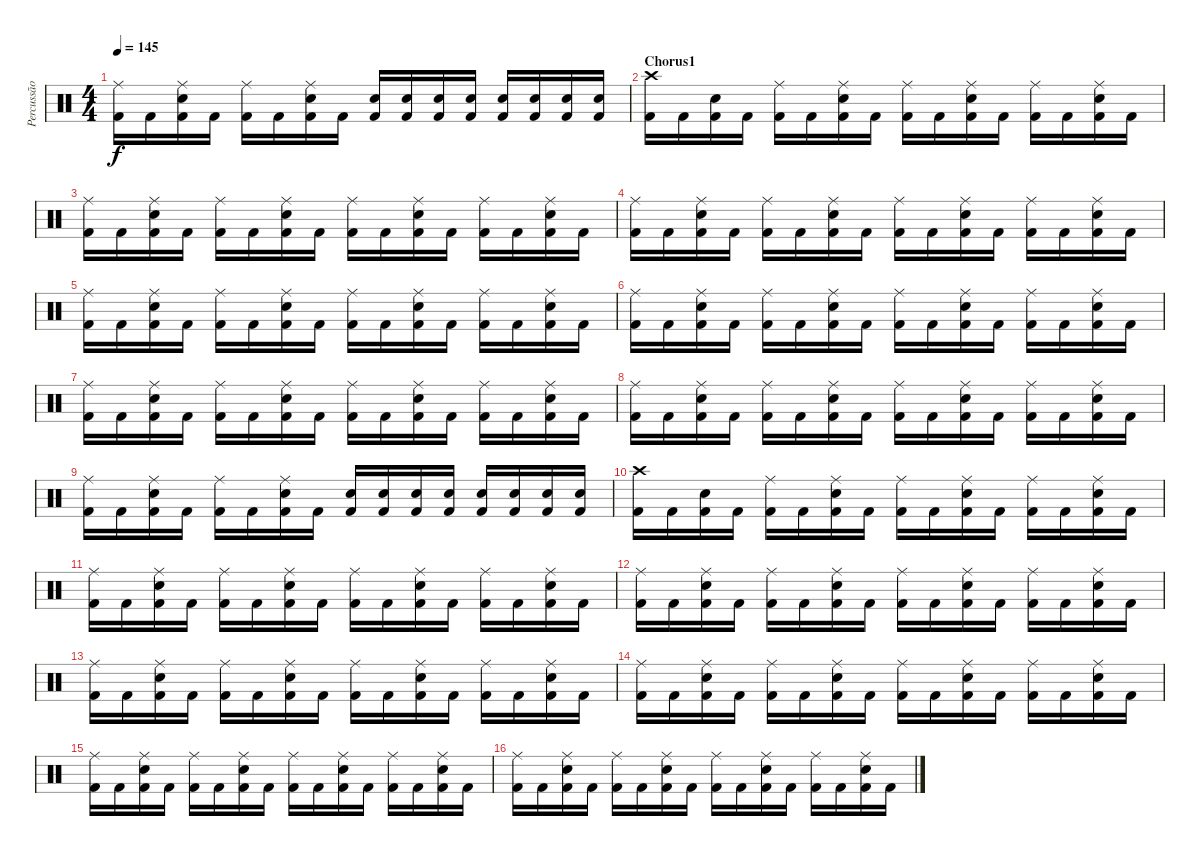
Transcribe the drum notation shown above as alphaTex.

\track ("Percussão" "Percussão") {instrument percussion}
\staff {score}
\articulation defaults
\ts (4 4)
\tempo 145
\clef neutral
\ks c
("Kick (hit) 2" "Ride (middle)").16{dy f} "Kick (hit) 2".16 ("Kick (hit) 2" "Snare (hit) 2" "Ride (middle)").16 "Kick (hit) 2".16 ("Kick (hit) 2" "Ride (middle)").16 "Kick (hit) 2".16 ("Kick (hit) 2" "Snare (hit) 2" "Ride (middle)").16 "Kick (hit) 2".16 ("Kick (hit) 2" "Snare (hit) 2").16 ("Kick (hit) 2" "Snare (hit) 2").16 ("Kick (hit) 2" "Snare (hit) 2").16 ("Kick (hit) 2" "Snare (hit) 2").16 ("Kick (hit) 2" "Snare (hit) 2").16 ("Kick (hit) 2" "Snare (hit) 2").16 ("Kick (hit) 2" "Snare (hit) 2").16 ("Kick (hit) 2" "Snare (hit) 2").16 |
\section ("" "Chorus1")
("Kick (hit) 2" "Crash high (hit)").16 "Kick (hit) 2".16 ("Kick (hit) 2" "Snare (hit) 2").16 "Kick (hit) 2".16 ("Kick (hit) 2" "Ride (middle)").16 "Kick (hit) 2".16 ("Kick (hit) 2" "Snare (hit) 2" "Ride (middle)").16 "Kick (hit) 2".16 ("Kick (hit) 2" "Ride (middle)").16 "Kick (hit) 2".16 ("Kick (hit) 2" "Snare (hit) 2" "Ride (middle)").16 "Kick (hit) 2".16 ("Kick (hit) 2" "Ride (middle)").16 "Kick (hit) 2".16 ("Kick (hit) 2" "Snare (hit) 2" "Ride (middle)").16 "Kick (hit) 2".16 |
("Kick (hit) 2" "Ride (middle)").16 "Kick (hit) 2".16 ("Kick (hit) 2" "Snare (hit) 2" "Ride (middle)").16 "Kick (hit) 2".16 ("Kick (hit) 2" "Ride (middle)").16 "Kick (hit) 2".16 ("Kick (hit) 2" "Snare (hit) 2" "Ride (middle)").16 "Kick (hit) 2".16 ("Kick (hit) 2" "Ride (middle)").16 "Kick (hit) 2".16 ("Kick (hit) 2" "Snare (hit) 2" "Ride (middle)").16 "Kick (hit) 2".16 ("Kick (hit) 2" "Ride (middle)").16 "Kick (hit) 2".16 ("Kick (hit) 2" "Snare (hit) 2" "Ride (middle)").16 "Kick (hit) 2".16 |
("Kick (hit) 2" "Ride (middle)").16 "Kick (hit) 2".16 ("Kick (hit) 2" "Snare (hit) 2" "Ride (middle)").16 "Kick (hit) 2".16 ("Kick (hit) 2" "Ride (middle)").16 "Kick (hit) 2".16 ("Kick (hit) 2" "Snare (hit) 2" "Ride (middle)").16 "Kick (hit) 2".16 ("Kick (hit) 2" "Ride (middle)").16 "Kick (hit) 2".16 ("Kick (hit) 2" "Snare (hit) 2" "Ride (middle)").16 "Kick (hit) 2".16 ("Kick (hit) 2" "Ride (middle)").16 "Kick (hit) 2".16 ("Kick (hit) 2" "Snare (hit) 2" "Ride (middle)").16 "Kick (hit) 2".16 |
("Kick (hit) 2" "Ride (middle)").16 "Kick (hit) 2".16 ("Kick (hit) 2" "Snare (hit) 2" "Ride (middle)").16 "Kick (hit) 2".16 ("Kick (hit) 2" "Ride (middle)").16 "Kick (hit) 2".16 ("Kick (hit) 2" "Snare (hit) 2" "Ride (middle)").16 "Kick (hit) 2".16 ("Kick (hit) 2" "Ride (middle)").16 "Kick (hit) 2".16 ("Kick (hit) 2" "Snare (hit) 2" "Ride (middle)").16 "Kick (hit) 2".16 ("Kick (hit) 2" "Ride (middle)").16 "Kick (hit) 2".16 ("Kick (hit) 2" "Snare (hit) 2" "Ride (middle)").16 "Kick (hit) 2".16 |
("Kick (hit) 2" "Ride (middle)").16 "Kick (hit) 2".16 ("Kick (hit) 2" "Snare (hit) 2" "Ride (middle)").16 "Kick (hit) 2".16 ("Kick (hit) 2" "Ride (middle)").16 "Kick (hit) 2".16 ("Kick (hit) 2" "Snare (hit) 2" "Ride (middle)").16 "Kick (hit) 2".16 ("Kick (hit) 2" "Ride (middle)").16 "Kick (hit) 2".16 ("Kick (hit) 2" "Snare (hit) 2" "Ride (middle)").16 "Kick (hit) 2".16 ("Kick (hit) 2" "Ride (middle)").16 "Kick (hit) 2".16 ("Kick (hit) 2" "Snare (hit) 2" "Ride (middle)").16 "Kick (hit) 2".16 |
("Kick (hit) 2" "Ride (middle)").16 "Kick (hit) 2".16 ("Kick (hit) 2" "Snare (hit) 2" "Ride (middle)").16 "Kick (hit) 2".16 ("Kick (hit) 2" "Ride (middle)").16 "Kick (hit) 2".16 ("Kick (hit) 2" "Snare (hit) 2" "Ride (middle)").16 "Kick (hit) 2".16 ("Kick (hit) 2" "Ride (middle)").16 "Kick (hit) 2".16 ("Kick (hit) 2" "Snare (hit) 2" "Ride (middle)").16 "Kick (hit) 2".16 ("Kick (hit) 2" "Ride (middle)").16 "Kick (hit) 2".16 ("Kick (hit) 2" "Snare (hit) 2" "Ride (middle)").16 "Kick (hit) 2".16 |
("Kick (hit) 2" "Ride (middle)").16 "Kick (hit) 2".16 ("Kick (hit) 2" "Snare (hit) 2" "Ride (middle)").16 "Kick (hit) 2".16 ("Kick (hit) 2" "Ride (middle)").16 "Kick (hit) 2".16 ("Kick (hit) 2" "Snare (hit) 2" "Ride (middle)").16 "Kick (hit) 2".16 ("Kick (hit) 2" "Ride (middle)").16 "Kick (hit) 2".16 ("Kick (hit) 2" "Snare (hit) 2" "Ride (middle)").16 "Kick (hit) 2".16 ("Kick (hit) 2" "Ride (middle)").16 "Kick (hit) 2".16 ("Kick (hit) 2" "Snare (hit) 2" "Ride (middle)").16 "Kick (hit) 2".16 |
("Kick (hit) 2" "Ride (middle)").16 "Kick (hit) 2".16 ("Kick (hit) 2" "Snare (hit) 2" "Ride (middle)").16 "Kick (hit) 2".16 ("Kick (hit) 2" "Ride (middle)").16 "Kick (hit) 2".16 ("Kick (hit) 2" "Snare (hit) 2" "Ride (middle)").16 "Kick (hit) 2".16 ("Kick (hit) 2" "Snare (hit) 2").16 ("Kick (hit) 2" "Snare (hit) 2").16 ("Kick (hit) 2" "Snare (hit) 2").16 ("Kick (hit) 2" "Snare (hit) 2").16 ("Kick (hit) 2" "Snare (hit) 2").16 ("Kick (hit) 2" "Snare (hit) 2").16 ("Kick (hit) 2" "Snare (hit) 2").16 ("Kick (hit) 2" "Snare (hit) 2").16 |
("Kick (hit) 2" "Crash high (hit)").16 "Kick (hit) 2".16 ("Kick (hit) 2" "Snare (hit) 2").16 "Kick (hit) 2".16 ("Kick (hit) 2" "Ride (middle)").16 "Kick (hit) 2".16 ("Kick (hit) 2" "Snare (hit) 2" "Ride (middle)").16 "Kick (hit) 2".16 ("Kick (hit) 2" "Ride (middle)").16 "Kick (hit) 2".16 ("Kick (hit) 2" "Snare (hit) 2" "Ride (middle)").16 "Kick (hit) 2".16 ("Kick (hit) 2" "Ride (middle)").16 "Kick (hit) 2".16 ("Kick (hit) 2" "Snare (hit) 2" "Ride (middle)").16 "Kick (hit) 2".16 |
("Kick (hit) 2" "Ride (middle)").16 "Kick (hit) 2".16 ("Kick (hit) 2" "Snare (hit) 2" "Ride (middle)").16 "Kick (hit) 2".16 ("Kick (hit) 2" "Ride (middle)").16 "Kick (hit) 2".16 ("Kick (hit) 2" "Snare (hit) 2" "Ride (middle)").16 "Kick (hit) 2".16 ("Kick (hit) 2" "Ride (middle)").16 "Kick (hit) 2".16 ("Kick (hit) 2" "Snare (hit) 2" "Ride (middle)").16 "Kick (hit) 2".16 ("Kick (hit) 2" "Ride (middle)").16 "Kick (hit) 2".16 ("Kick (hit) 2" "Snare (hit) 2" "Ride (middle)").16 "Kick (hit) 2".16 |
("Kick (hit) 2" "Ride (middle)").16 "Kick (hit) 2".16 ("Kick (hit) 2" "Snare (hit) 2" "Ride (middle)").16 "Kick (hit) 2".16 ("Kick (hit) 2" "Ride (middle)").16 "Kick (hit) 2".16 ("Kick (hit) 2" "Snare (hit) 2" "Ride (middle)").16 "Kick (hit) 2".16 ("Kick (hit) 2" "Ride (middle)").16 "Kick (hit) 2".16 ("Kick (hit) 2" "Snare (hit) 2" "Ride (middle)").16 "Kick (hit) 2".16 ("Kick (hit) 2" "Ride (middle)").16 "Kick (hit) 2".16 ("Kick (hit) 2" "Snare (hit) 2" "Ride (middle)").16 "Kick (hit) 2".16 |
("Kick (hit) 2" "Ride (middle)").16 "Kick (hit) 2".16 ("Kick (hit) 2" "Snare (hit) 2" "Ride (middle)").16 "Kick (hit) 2".16 ("Kick (hit) 2" "Ride (middle)").16 "Kick (hit) 2".16 ("Kick (hit) 2" "Snare (hit) 2" "Ride (middle)").16 "Kick (hit) 2".16 ("Kick (hit) 2" "Ride (middle)").16 "Kick (hit) 2".16 ("Kick (hit) 2" "Snare (hit) 2" "Ride (middle)").16 "Kick (hit) 2".16 ("Kick (hit) 2" "Ride (middle)").16 "Kick (hit) 2".16 ("Kick (hit) 2" "Snare (hit) 2" "Ride (middle)").16 "Kick (hit) 2".16 |
("Kick (hit) 2" "Ride (middle)").16 "Kick (hit) 2".16 ("Kick (hit) 2" "Snare (hit) 2" "Ride (middle)").16 "Kick (hit) 2".16 ("Kick (hit) 2" "Ride (middle)").16 "Kick (hit) 2".16 ("Kick (hit) 2" "Snare (hit) 2" "Ride (middle)").16 "Kick (hit) 2".16 ("Kick (hit) 2" "Ride (middle)").16 "Kick (hit) 2".16 ("Kick (hit) 2" "Snare (hit) 2" "Ride (middle)").16 "Kick (hit) 2".16 ("Kick (hit) 2" "Ride (middle)").16 "Kick (hit) 2".16 ("Kick (hit) 2" "Snare (hit) 2" "Ride (middle)").16 "Kick (hit) 2".16 |
("Kick (hit) 2" "Ride (middle)").16 "Kick (hit) 2".16 ("Kick (hit) 2" "Snare (hit) 2" "Ride (middle)").16 "Kick (hit) 2".16 ("Kick (hit) 2" "Ride (middle)").16 "Kick (hit) 2".16 ("Kick (hit) 2" "Snare (hit) 2" "Ride (middle)").16 "Kick (hit) 2".16 ("Kick (hit) 2" "Ride (middle)").16 "Kick (hit) 2".16 ("Kick (hit) 2" "Snare (hit) 2" "Ride (middle)").16 "Kick (hit) 2".16 ("Kick (hit) 2" "Ride (middle)").16 "Kick (hit) 2".16 ("Kick (hit) 2" "Snare (hit) 2" "Ride (middle)").16 "Kick (hit) 2".16 |
("Kick (hit) 2" "Ride (middle)").16 "Kick (hit) 2".16 ("Kick (hit) 2" "Snare (hit) 2" "Ride (middle)").16 "Kick (hit) 2".16 ("Kick (hit) 2" "Ride (middle)").16 "Kick (hit) 2".16 ("Kick (hit) 2" "Snare (hit) 2" "Ride (middle)").16 "Kick (hit) 2".16 ("Kick (hit) 2" "Ride (middle)").16 "Kick (hit) 2".16 ("Kick (hit) 2" "Snare (hit) 2" "Ride (middle)").16 "Kick (hit) 2".16 ("Kick (hit) 2" "Ride (middle)").16 "Kick (hit) 2".16 ("Kick (hit) 2" "Snare (hit) 2" "Ride (middle)").16 "Kick (hit) 2".16
